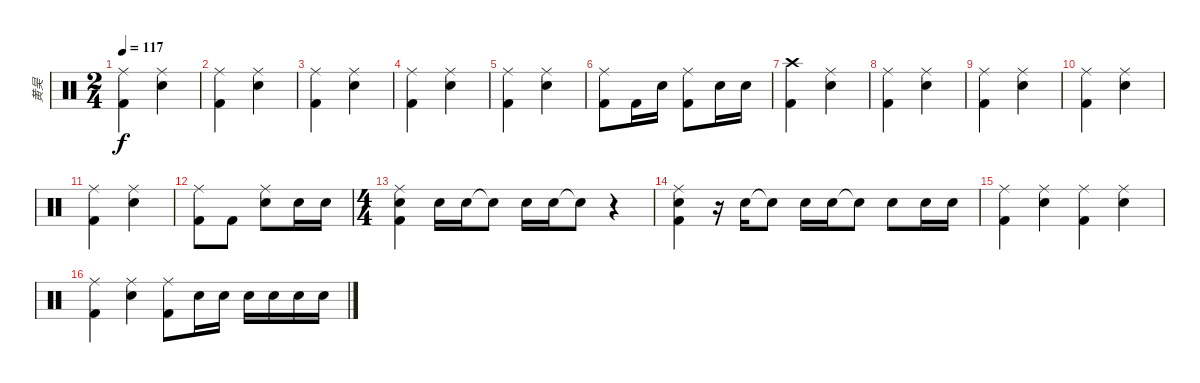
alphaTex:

\track ("黄昊" "黄昊") {instrument percussion}
\staff {score}
\articulation defaults
\ts (2 4)
\tempo 117
\clef neutral
\ks c
("Ride (middle)" "Kick (hit) 2").4{dy f} ("Ride (middle)" "Snare (hit) 2").4 |
("Ride (middle)" "Kick (hit) 2").4 ("Ride (middle)" "Snare (hit) 2").4 |
("Ride (middle)" "Kick (hit) 2").4 ("Ride (middle)" "Snare (hit) 2").4 |
("Ride (middle)" "Kick (hit) 2").4 ("Ride (middle)" "Snare (hit) 2").4 |
("Ride (middle)" "Kick (hit) 2").4 ("Ride (middle)" "Snare (hit) 2").4 |
("Ride (middle)" "Kick (hit) 2").8 "Kick (hit) 2".16 "Snare (hit) 2".16 ("Ride (middle)" "Kick (hit) 2").8 "Snare (hit) 2".16 "Snare (hit) 2".16 |
("Crash high (hit)" "Kick (hit) 2").4 ("Ride (middle)" "Snare (hit) 2").4 |
("Ride (middle)" "Kick (hit) 2").4 ("Ride (middle)" "Snare (hit) 2").4 |
("Ride (middle)" "Kick (hit) 2").4 ("Ride (middle)" "Snare (hit) 2").4 |
("Ride (middle)" "Kick (hit) 2").4 ("Ride (middle)" "Snare (hit) 2").4 |
("Ride (middle)" "Kick (hit) 2").4 ("Ride (middle)" "Snare (hit) 2").4 |
("Ride (middle)" "Kick (hit) 2").8 "Kick (hit) 2".8 ("Ride (middle)" "Snare (hit) 2").8 "Snare (hit) 2".16 "Snare (hit) 2".16 |
\ts (4 4)
("Ride (middle)" "Snare (hit) 2" "Kick (hit) 2").4 "Snare (hit) 2".16 "Snare (hit) 2".16 "Snare (hit)"{t}.8 "Snare (hit) 2".16 "Snare (hit) 2".16 "Snare (hit)"{t}.8 r.4 |
("Ride (middle)" "Snare (hit) 2" "Kick (hit) 2").4 r.16 "Snare (hit) 2".16 "Snare (hit)"{t}.8 "Snare (hit) 2".16 "Snare (hit) 2".16 "Snare (hit)"{t}.8 "Snare (hit) 2".8 "Snare (hit) 2".16 "Snare (hit) 2".16 |
("Ride (middle)" "Kick (hit) 2").4 ("Ride (middle)" "Snare (hit) 2").4 ("Ride (middle)" "Kick (hit) 2").4 ("Ride (middle)" "Snare (hit) 2").4 |
("Ride (middle)" "Kick (hit) 2").4 ("Ride (middle)" "Snare (hit) 2").4 ("Ride (middle)" "Kick (hit) 2").8 "Snare (hit) 2".16 "Snare (hit) 2".16 "Snare (hit) 2".16 "Snare (hit) 2".16 "Snare (hit) 2".16 "Snare (hit) 2".16
